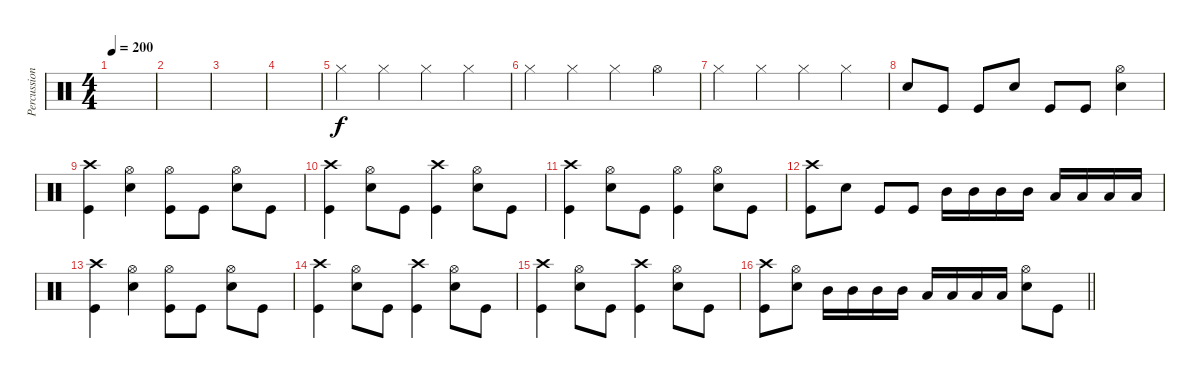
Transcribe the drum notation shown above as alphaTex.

\track ("Percussion" "Percussion") {instrument percussion}
\staff {score}
\articulation defaults
\ts (4 4)
\tempo 200
\clef neutral
\ks c
|
|
|
|
"Hi-Hat (closed)".4 "Hi-Hat (closed)".4 "Hi-Hat (closed)".4 "Hi-Hat (closed)".4 |
"Hi-Hat (closed)".4 "Hi-Hat (closed)".4 "Hi-Hat (closed)".4 "Hi-Hat (open)".4 |
"Hi-Hat (closed)".4 "Hi-Hat (closed)".4 "Hi-Hat (closed)".4 "Hi-Hat (closed)".4 |
"Electric Snare (hit)".8 "Kick (hit)".8 "Kick (hit)".8 "Electric Snare (hit)".8 "Kick (hit)".8 "Kick (hit)".8 ("Electric Snare (hit)" "Hi-Hat (open)").4 |
("Crash high (hit)" "Kick (hit)").4 ("Hi-Hat (open)" "Electric Snare (hit)").4 ("Kick (hit)" "Hi-Hat (open)").8 "Kick (hit)".8 ("Electric Snare (hit)" "Hi-Hat (open)").8 "Kick (hit)".8 |
("Crash high (hit)" "Kick (hit)").4 ("Hi-Hat (open)" "Electric Snare (hit)").8 "Kick (hit)".8 ("Kick (hit)" "Crash high (hit)").4 ("Electric Snare (hit)" "Hi-Hat (open)").8 "Kick (hit)".8 |
("Crash high (hit)" "Kick (hit)").4 ("Hi-Hat (open)" "Electric Snare (hit)").8 "Kick (hit)".8 ("Kick (hit)" "Hi-Hat (open)").4 ("Electric Snare (hit)" "Hi-Hat (open)").8 "Kick (hit)".8 |
("Crash high (hit)" "Kick (hit)").8 "Electric Snare (hit)".8 "Kick (hit)".8 "Kick (hit)".8 "Mid Tom (hit)".16 "Mid Tom (hit)".16 "Mid Tom (hit)".16 "Mid Tom (hit)".16 "Low Tom (hit)".16 "Low Tom (hit)".16 "Low Tom (hit)".16 "Low Tom (hit)".16 |
("Crash high (hit)" "Kick (hit)").4 ("Hi-Hat (open)" "Electric Snare (hit)").4 ("Kick (hit)" "Hi-Hat (open)").8 "Kick (hit)".8 ("Electric Snare (hit)" "Hi-Hat (open)").8 "Kick (hit)".8 |
("Crash high (hit)" "Kick (hit)").4 ("Hi-Hat (open)" "Electric Snare (hit)").8 "Kick (hit)".8 ("Kick (hit)" "Crash high (hit)").4 ("Electric Snare (hit)" "Hi-Hat (open)").8 "Kick (hit)".8 |
("Crash high (hit)" "Kick (hit)").4 ("Hi-Hat (open)" "Electric Snare (hit)").8 "Kick (hit)".8 ("Kick (hit)" "Crash high (hit)").4 ("Electric Snare (hit)" "Hi-Hat (open)").8 "Kick (hit)".8 |
\barLineRight lightlight
("Crash high (hit)" "Kick (hit)").8 ("Electric Snare (hit)" "Hi-Hat (open)").8 "Mid Tom (hit)".16 "Mid Tom (hit)".16 "Mid Tom (hit)".16 "Mid Tom (hit)".16 "Low Tom (hit)".16 "Low Tom (hit)".16 "Low Tom (hit)".16 "Low Tom (hit)".16 ("Electric Snare (hit)" "Hi-Hat (open)").8 "Kick (hit)".8
